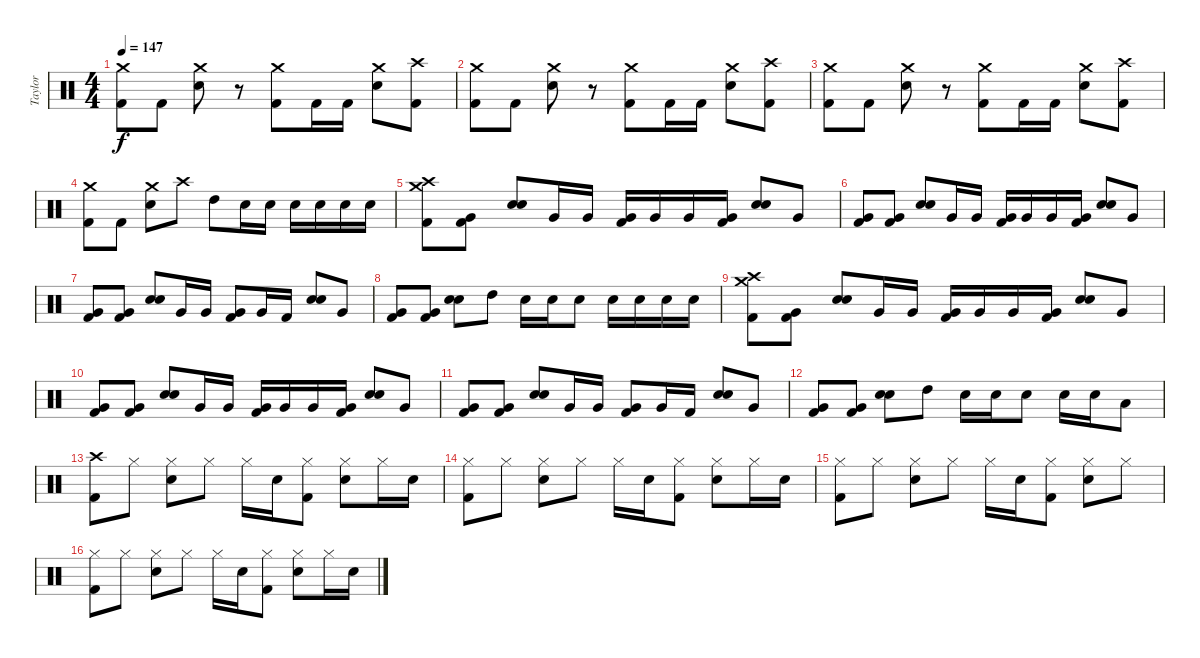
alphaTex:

\track ("Taylor" "Taylor") {instrument percussion}
\staff {score}
\articulation defaults
\ts (4 4)
\tempo 147
\clef neutral
\ks c
("Crash medium (hit)" "Kick (hit) 2").8{dy f} "Kick (hit) 2".8 ("Crash medium (hit)" "Electric Snare (hit)").8 r.8 ("Crash medium (hit)" "Kick (hit) 2").8 "Kick (hit) 2".16 "Kick (hit) 2".16 ("Crash medium (hit)" "Electric Snare (hit)").8 ("Crash high (hit)" "Kick (hit) 2").8 |
("Crash medium (hit)" "Kick (hit) 2").8 "Kick (hit) 2".8 ("Crash medium (hit)" "Electric Snare (hit)").8 r.8 ("Crash medium (hit)" "Kick (hit) 2").8 "Kick (hit) 2".16 "Kick (hit) 2".16 ("Crash medium (hit)" "Electric Snare (hit)").8 ("Crash high (hit)" "Kick (hit) 2").8 |
("Crash medium (hit)" "Kick (hit) 2").8 "Kick (hit) 2".8 ("Crash medium (hit)" "Electric Snare (hit)").8 r.8 ("Crash medium (hit)" "Kick (hit) 2").8 "Kick (hit) 2".16 "Kick (hit) 2".16 ("Crash medium (hit)" "Electric Snare (hit)").8 ("Crash high (hit)" "Kick (hit) 2").8 |
("Crash medium (hit)" "Kick (hit) 2").8 "Kick (hit) 2".8 ("Crash medium (hit)" "Electric Snare (hit)").8 "Crash high (hit)".8 "High Tom (hit)".8 "Electric Snare (hit)".16 "Electric Snare (hit)".16 "Electric Snare (hit)".16 "Electric Snare (hit)".16 "Electric Snare (hit)".16 "Electric Snare (hit)".16 |
("Crash high (hit)" "Crash medium (hit)" "Kick (hit) 2").8 ("Very Low Tom (hit)" "Kick (hit) 2").8 ("Electric Snare (hit)" "Electric Snare (hit)").8{bu 240} "Very Low Tom (hit)".16 "Very Low Tom (hit)".16 ("Very Low Tom (hit)" "Kick (hit) 2").16 "Very Low Tom (hit)".16 "Very Low Tom (hit)".16 ("Very Low Tom (hit)" "Kick (hit) 2").16 ("Electric Snare (hit)" "Electric Snare (hit)").8{bu 240} "Very Low Tom (hit)".8 |
("Very Low Tom (hit)" "Kick (hit) 2").8 ("Very Low Tom (hit)" "Kick (hit) 2").8 ("Electric Snare (hit)" "Electric Snare (hit)").8{bu 240} "Very Low Tom (hit)".16 "Very Low Tom (hit)".16 ("Very Low Tom (hit)" "Kick (hit) 2").16 "Very Low Tom (hit)".16 "Very Low Tom (hit)".16 ("Very Low Tom (hit)" "Kick (hit) 2").16 ("Electric Snare (hit)" "Electric Snare (hit)").8{bu 240} "Very Low Tom (hit)".8 |
("Very Low Tom (hit)" "Kick (hit) 2").8 ("Very Low Tom (hit)" "Kick (hit) 2").8 ("Electric Snare (hit)" "Electric Snare (hit)").8{bu 240} "Very Low Tom (hit)".16 "Very Low Tom (hit)".16 ("Very Low Tom (hit)" "Kick (hit) 2").8 "Very Low Tom (hit)".16 "Kick (hit) 2".16 ("Electric Snare (hit)" "Electric Snare (hit)").8{bu 240} "Very Low Tom (hit)".8 |
("Very Low Tom (hit)" "Kick (hit) 2").8 ("Very Low Tom (hit)" "Kick (hit) 2").8 ("Electric Snare (hit)" "Electric Snare (hit)").8{bu 240} "High Tom (hit)".8 "Electric Snare (hit)".16 "Electric Snare (hit)".16 "Electric Snare (hit)".8 "Electric Snare (hit)".16 "Electric Snare (hit)".16 "Electric Snare (hit)".16 "Electric Snare (hit)".16 |
("Crash high (hit)" "Crash medium (hit)" "Kick (hit) 2").8 ("Very Low Tom (hit)" "Kick (hit) 2").8 ("Electric Snare (hit)" "Electric Snare (hit)").8{bu 240} "Very Low Tom (hit)".16 "Very Low Tom (hit)".16 ("Very Low Tom (hit)" "Kick (hit) 2").16 "Very Low Tom (hit)".16 "Very Low Tom (hit)".16 ("Very Low Tom (hit)" "Kick (hit) 2").16 ("Electric Snare (hit)" "Electric Snare (hit)").8{bu 240} "Very Low Tom (hit)".8 |
("Very Low Tom (hit)" "Kick (hit) 2").8 ("Very Low Tom (hit)" "Kick (hit) 2").8 ("Electric Snare (hit)" "Electric Snare (hit)").8{bu 240} "Very Low Tom (hit)".16 "Very Low Tom (hit)".16 ("Very Low Tom (hit)" "Kick (hit) 2").16 "Very Low Tom (hit)".16 "Very Low Tom (hit)".16 ("Very Low Tom (hit)" "Kick (hit) 2").16 ("Electric Snare (hit)" "Electric Snare (hit)").8{bu 240} "Very Low Tom (hit)".8 |
("Very Low Tom (hit)" "Kick (hit) 2").8 ("Very Low Tom (hit)" "Kick (hit) 2").8 ("Electric Snare (hit)" "Electric Snare (hit)").8{bu 240} "Very Low Tom (hit)".16 "Very Low Tom (hit)".16 ("Very Low Tom (hit)" "Kick (hit) 2").8 "Very Low Tom (hit)".16 "Kick (hit) 2".16 ("Electric Snare (hit)" "Electric Snare (hit)").8{bu 240} "Very Low Tom (hit)".8 |
("Very Low Tom (hit)" "Kick (hit) 2").8 ("Very Low Tom (hit)" "Kick (hit) 2").8 ("Electric Snare (hit)" "Electric Snare (hit)").8{bu 240} "High Tom (hit)".8 "Electric Snare (hit)".16 "Electric Snare (hit)".16 "Electric Snare (hit)".8 "Electric Snare (hit)".16 "Electric Snare (hit)".16 "Low Tom (hit)".8 |
("Crash high (hit)" "Kick (hit) 2").8 "Hi-Hat (closed)".8 ("Hi-Hat (closed)" "Electric Snare (hit)").8 "Hi-Hat (closed)".8 "Hi-Hat (closed)".16 "Electric Snare (hit)".16 ("Hi-Hat (closed)" "Kick (hit) 2").8 ("Hi-Hat (closed)" "Electric Snare (hit)").8 "Hi-Hat (closed)".16 "Electric Snare (hit)".16 |
("Hi-Hat (closed)" "Kick (hit) 2").8 "Hi-Hat (closed)".8 ("Hi-Hat (closed)" "Electric Snare (hit)").8 "Hi-Hat (closed)".8 "Hi-Hat (closed)".16 "Electric Snare (hit)".16 ("Hi-Hat (closed)" "Kick (hit) 2").8 ("Hi-Hat (closed)" "Electric Snare (hit)").8 "Hi-Hat (closed)".16 "Electric Snare (hit)".16 |
("Hi-Hat (closed)" "Kick (hit) 2").8 "Hi-Hat (closed)".8 ("Hi-Hat (closed)" "Electric Snare (hit)").8 "Hi-Hat (closed)".8 "Hi-Hat (closed)".16 "Electric Snare (hit)".16 ("Hi-Hat (closed)" "Kick (hit) 2").8 ("Hi-Hat (closed)" "Electric Snare (hit)").8 "Hi-Hat (closed)".8 |
("Hi-Hat (closed)" "Kick (hit) 2").8 "Hi-Hat (closed)".8 ("Hi-Hat (closed)" "Electric Snare (hit)").8 "Hi-Hat (closed)".8 "Hi-Hat (closed)".16 "Electric Snare (hit)".16 ("Hi-Hat (closed)" "Kick (hit) 2").8 ("Hi-Hat (closed)" "Electric Snare (hit)").8 "Hi-Hat (closed)".16 "Electric Snare (hit)".16
